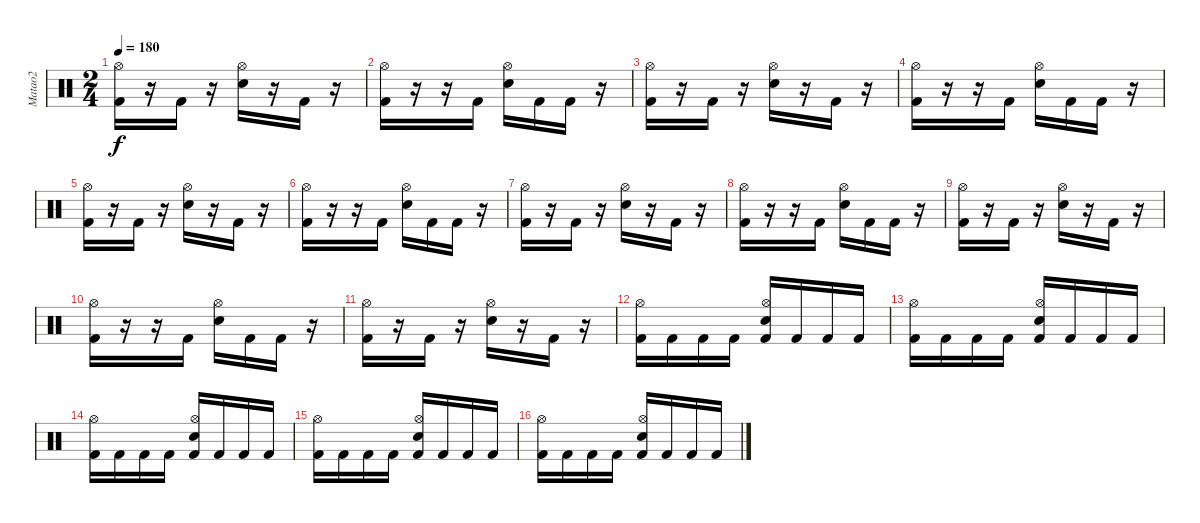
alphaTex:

\track ("Matao2" "Matao2") {instrument percussion}
\staff {score}
\articulation defaults
\ts (2 4)
\tempo 180
\clef neutral
\ks c
("Kick (hit) 2" "Hi-Hat (open)").16{dy f} r.16 "Kick (hit) 2".16 r.16 ("Electric Snare (hit)" "Hi-Hat (open)").16 r.16 "Kick (hit) 2".16 r.16 |
("Kick (hit) 2" "Hi-Hat (open)").16 r.16 r.16 "Kick (hit) 2".16 ("Electric Snare (hit)" "Hi-Hat (open)").16 "Kick (hit) 2".16 "Kick (hit) 2".16 r.16 |
("Kick (hit) 2" "Hi-Hat (open)").16 r.16 "Kick (hit) 2".16 r.16 ("Electric Snare (hit)" "Hi-Hat (open)").16 r.16 "Kick (hit) 2".16 r.16 |
("Kick (hit) 2" "Hi-Hat (open)").16 r.16 r.16 "Kick (hit) 2".16 ("Electric Snare (hit)" "Hi-Hat (open)").16 "Kick (hit) 2".16 "Kick (hit) 2".16 r.16 |
("Kick (hit) 2" "Hi-Hat (open)").16 r.16 "Kick (hit) 2".16 r.16 ("Electric Snare (hit)" "Hi-Hat (open)").16 r.16 "Kick (hit) 2".16 r.16 |
("Kick (hit) 2" "Hi-Hat (open)").16 r.16 r.16 "Kick (hit) 2".16 ("Electric Snare (hit)" "Hi-Hat (open)").16 "Kick (hit) 2".16 "Kick (hit) 2".16 r.16 |
("Kick (hit) 2" "Hi-Hat (open)").16 r.16 "Kick (hit) 2".16 r.16 ("Electric Snare (hit)" "Hi-Hat (open)").16 r.16 "Kick (hit) 2".16 r.16 |
("Kick (hit) 2" "Hi-Hat (open)").16 r.16 r.16 "Kick (hit) 2".16 ("Electric Snare (hit)" "Hi-Hat (open)").16 "Kick (hit) 2".16 "Kick (hit) 2".16 r.16 |
("Kick (hit) 2" "Hi-Hat (open)").16 r.16 "Kick (hit) 2".16 r.16 ("Electric Snare (hit)" "Hi-Hat (open)").16 r.16 "Kick (hit) 2".16 r.16 |
("Kick (hit) 2" "Hi-Hat (open)").16 r.16 r.16 "Kick (hit) 2".16 ("Electric Snare (hit)" "Hi-Hat (open)").16 "Kick (hit) 2".16 "Kick (hit) 2".16 r.16 |
("Kick (hit) 2" "Hi-Hat (open)").16 r.16 "Kick (hit) 2".16 r.16 ("Electric Snare (hit)" "Hi-Hat (open)").16 r.16 "Kick (hit) 2".16 r.16 |
("Kick (hit) 2" "Hi-Hat (open)").16 "Kick (hit) 2".16 "Kick (hit) 2".16 "Kick (hit) 2".16 ("Kick (hit) 2" "Electric Snare (hit)" "Hi-Hat (open)").16 "Kick (hit) 2".16 "Kick (hit) 2".16 "Kick (hit) 2".16 |
("Kick (hit) 2" "Hi-Hat (open)").16 "Kick (hit) 2".16 "Kick (hit) 2".16 "Kick (hit) 2".16 ("Kick (hit) 2" "Electric Snare (hit)" "Hi-Hat (open)").16 "Kick (hit) 2".16 "Kick (hit) 2".16 "Kick (hit) 2".16 |
("Kick (hit) 2" "Hi-Hat (open)").16 "Kick (hit) 2".16 "Kick (hit) 2".16 "Kick (hit) 2".16 ("Kick (hit) 2" "Electric Snare (hit)" "Hi-Hat (open)").16 "Kick (hit) 2".16 "Kick (hit) 2".16 "Kick (hit) 2".16 |
("Kick (hit) 2" "Hi-Hat (open)").16 "Kick (hit) 2".16 "Kick (hit) 2".16 "Kick (hit) 2".16 ("Kick (hit) 2" "Electric Snare (hit)" "Hi-Hat (open)").16 "Kick (hit) 2".16 "Kick (hit) 2".16 "Kick (hit) 2".16 |
("Kick (hit) 2" "Hi-Hat (open)").16 "Kick (hit) 2".16 "Kick (hit) 2".16 "Kick (hit) 2".16 ("Kick (hit) 2" "Electric Snare (hit)" "Hi-Hat (open)").16 "Kick (hit) 2".16 "Kick (hit) 2".16 "Kick (hit) 2".16
